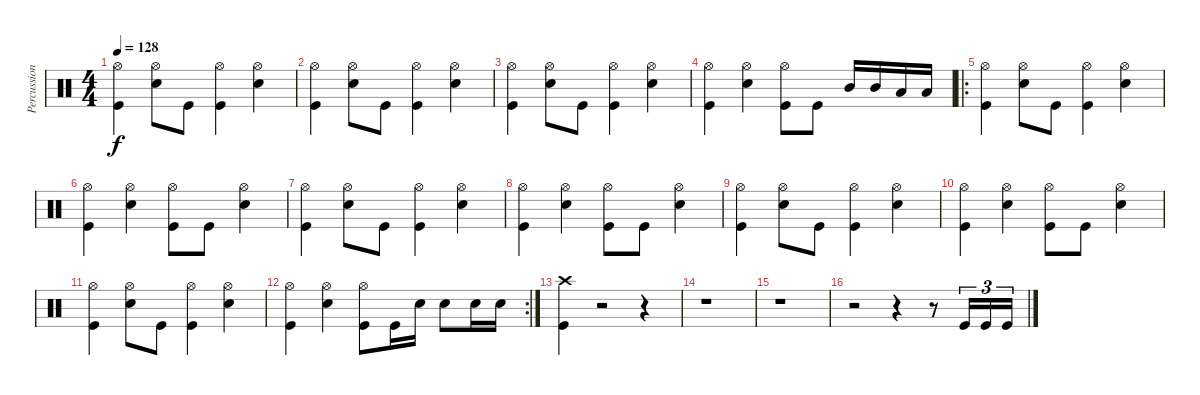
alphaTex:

\track ("Percussion" "Percussion") {instrument percussion}
\staff {score}
\articulation defaults
\ts (4 4)
\tempo 128
\clef neutral
\ks c
("Hi-Hat (open)" "Kick (hit)").4{dy f} ("Hi-Hat (open)" "Snare (hit) 2").8 "Kick (hit)".8 ("Hi-Hat (open)" "Kick (hit)").4 ("Hi-Hat (open)" "Snare (hit) 2").4 |
("Hi-Hat (open)" "Kick (hit)").4 ("Hi-Hat (open)" "Snare (hit) 2").8 "Kick (hit)".8 ("Hi-Hat (open)" "Kick (hit)").4 ("Hi-Hat (open)" "Snare (hit) 2").4 |
("Hi-Hat (open)" "Kick (hit)").4 ("Hi-Hat (open)" "Snare (hit) 2").8 "Kick (hit)".8 ("Hi-Hat (open)" "Kick (hit)").4 ("Hi-Hat (open)" "Snare (hit) 2").4 |
("Hi-Hat (open)" "Kick (hit)").4 ("Hi-Hat (open)" "Snare (hit) 2").4 ("Hi-Hat (open)" "Kick (hit)").8 "Kick (hit)".8 "Mid Tom (hit)".16 "Mid Tom (hit)".16 "Low Tom (hit)".16 "Low Tom (hit)".16 |
\ro
("Hi-Hat (open)" "Kick (hit)").4 ("Hi-Hat (open)" "Snare (hit) 2").8 "Kick (hit)".8 ("Hi-Hat (open)" "Kick (hit)").4 ("Hi-Hat (open)" "Snare (hit) 2").4 |
("Hi-Hat (open)" "Kick (hit)").4 ("Hi-Hat (open)" "Snare (hit) 2").4 ("Hi-Hat (open)" "Kick (hit)").8 "Kick (hit)".8 ("Hi-Hat (open)" "Snare (hit) 2").4 |
("Hi-Hat (open)" "Kick (hit)").4 ("Hi-Hat (open)" "Snare (hit) 2").8 "Kick (hit)".8 ("Hi-Hat (open)" "Kick (hit)").4 ("Hi-Hat (open)" "Snare (hit) 2").4 |
("Hi-Hat (open)" "Kick (hit)").4 ("Hi-Hat (open)" "Snare (hit) 2").4 ("Hi-Hat (open)" "Kick (hit)").8 "Kick (hit)".8 ("Hi-Hat (open)" "Snare (hit) 2").4 |
("Hi-Hat (open)" "Kick (hit)").4 ("Hi-Hat (open)" "Snare (hit) 2").8 "Kick (hit)".8 ("Hi-Hat (open)" "Kick (hit)").4 ("Hi-Hat (open)" "Snare (hit) 2").4 |
("Hi-Hat (open)" "Kick (hit)").4 ("Hi-Hat (open)" "Snare (hit) 2").4 ("Hi-Hat (open)" "Kick (hit)").8 "Kick (hit)".8 ("Hi-Hat (open)" "Snare (hit) 2").4 |
("Hi-Hat (open)" "Kick (hit)").4 ("Hi-Hat (open)" "Snare (hit) 2").8 "Kick (hit)".8 ("Hi-Hat (open)" "Kick (hit)").4 ("Hi-Hat (open)" "Snare (hit) 2").4 |
\rc 2
("Hi-Hat (open)" "Kick (hit)").4 ("Hi-Hat (open)" "Snare (hit) 2").4 ("Hi-Hat (open)" "Kick (hit)").8 "Kick (hit)".16 "Snare (hit) 2".16 "Snare (hit) 2".8 "Snare (hit) 2".16 "Snare (hit) 2".16 |
("Crash high (hit)" "Kick (hit)").4 r.2 r.4 |
r.1 |
r.1 |
r.2 r.4 r.8 "Kick (hit)".16{tu (3 2)} "Kick (hit)".16{tu (3 2)} "Kick (hit)".16{tu (3 2)}
